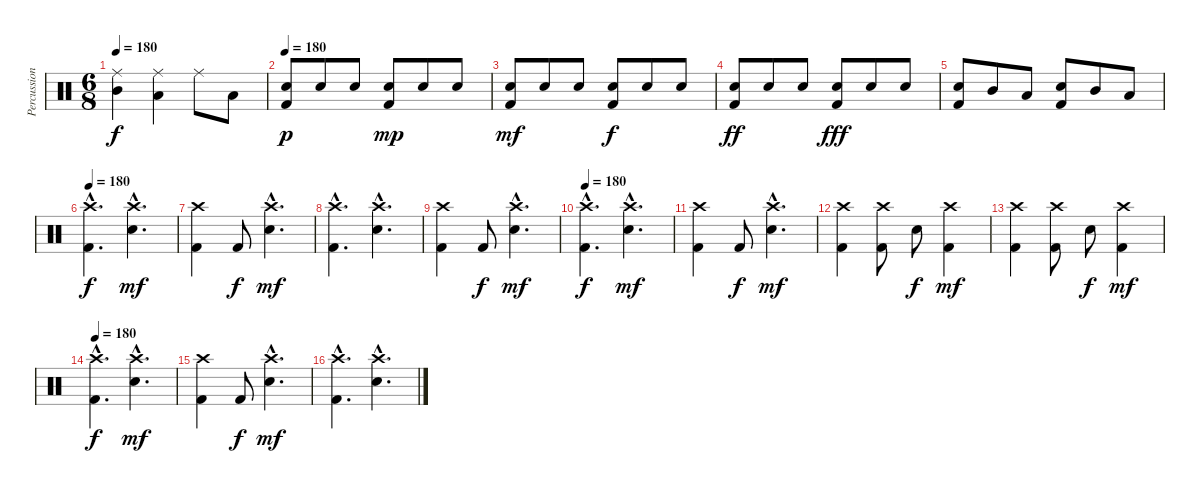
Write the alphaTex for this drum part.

\track ("Percussion" "Percussion") {instrument percussion}
\staff {score}
\articulation defaults
\ts (6 8)
\tempo 180
\clef neutral
\ks c
("Ride (middle)" "Mid Tom (hit)").4{dy f} ("Ride (middle)" "Low Tom (hit)").4 "Ride (middle)".8 "Low Tom (hit)".8 |
\tempo 180
("Electric Snare (hit)" "Kick (hit) 2").8{dy p} "Electric Snare (hit)".8 "Electric Snare (hit)".8 ("Electric Snare (hit)" "Kick (hit) 2").8{dy mp} "Electric Snare (hit)".8 "Electric Snare (hit)".8 |
("Electric Snare (hit)" "Kick (hit) 2").8{dy mf} "Electric Snare (hit)".8 "Electric Snare (hit)".8 ("Electric Snare (hit)" "Kick (hit) 2").8{dy f} "Electric Snare (hit)".8 "Electric Snare (hit)".8 |
("Electric Snare (hit)" "Kick (hit) 2").8{dy ff} "Electric Snare (hit)".8 "Electric Snare (hit)".8 ("Electric Snare (hit)" "Kick (hit) 2").8{dy fff} "Electric Snare (hit)".8 "Electric Snare (hit)".8 |
("Electric Snare (hit)" "Kick (hit) 2").8 "Mid Tom (hit)".8 "Low Tom (hit)".8 ("Electric Snare (hit)" "Kick (hit) 2").8 "Mid Tom (hit)".8 "Low Tom (hit)".8 |
\tempo 180
("Crash high (hit)"{hac} "Kick (hit) 2"{hac}).4{d dy f} ("Crash high (hit)"{hac} "Electric Snare (hit)"{hac}).4{d dy mf} |
("Crash high (hit)" "Kick (hit) 2").4 "Kick (hit) 2".8{dy f} ("Crash high (hit)"{hac} "Electric Snare (hit)"{hac}).4{d dy mf} |
("Crash high (hit)"{hac} "Kick (hit) 2"{hac}).4{d} ("Crash high (hit)"{hac} "Electric Snare (hit)"{hac}).4{d} |
("Crash high (hit)" "Kick (hit) 2").4 "Kick (hit) 2".8{dy f} ("Crash high (hit)"{hac} "Electric Snare (hit)"{hac}).4{d dy mf} |
\tempo 180
("Crash high (hit)"{hac} "Kick (hit) 2"{hac}).4{d dy f} ("Crash high (hit)"{hac} "Electric Snare (hit)"{hac}).4{d dy mf} |
("Crash high (hit)" "Kick (hit) 2").4 "Kick (hit) 2".8{dy f} ("Crash high (hit)"{hac} "Electric Snare (hit)"{hac}).4{d dy mf} |
("Crash high (hit)" "Kick (hit) 2").4 ("Crash high (hit)" "Kick (hit) 2").8 "Electric Snare (hit)".8{dy f} ("Crash high (hit)" "Kick (hit) 2").4{dy mf} |
("Crash high (hit)" "Kick (hit) 2").4 ("Crash high (hit)" "Kick (hit) 2").8 "Electric Snare (hit)".8{dy f} ("Crash high (hit)" "Kick (hit) 2").4{dy mf} |
\tempo 180
("Crash high (hit)"{hac} "Kick (hit) 2"{hac}).4{d dy f} ("Crash high (hit)"{hac} "Electric Snare (hit)"{hac}).4{d dy mf} |
("Crash high (hit)" "Kick (hit) 2").4 "Kick (hit) 2".8{dy f} ("Crash high (hit)"{hac} "Electric Snare (hit)"{hac}).4{d dy mf} |
("Crash high (hit)"{hac} "Kick (hit) 2"{hac}).4{d} ("Crash high (hit)"{hac} "Electric Snare (hit)"{hac}).4{d}
